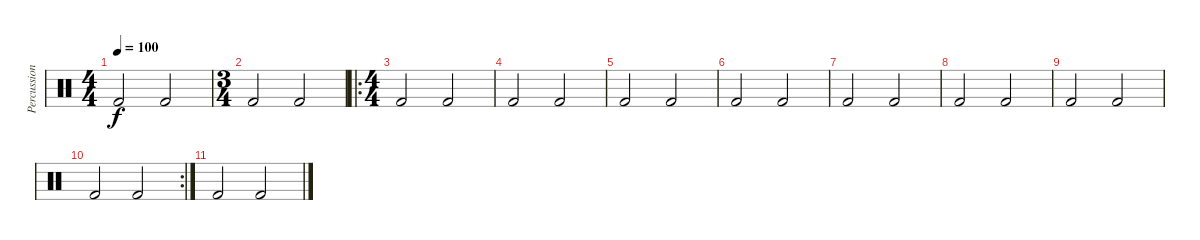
\track ("Percussion" "Percussion") {mute instrument percussion}
\staff {score}
\articulation defaults
\ts (4 4)
\tempo 100
\clef neutral
\ks c "Kick (hit) 2".2{dy f} "Kick (hit) 2".2
|
\ts (3 4)
"Kick (hit) 2".2 "Kick (hit) 2".2 |
\ro
\ts (4 4)
"Kick (hit) 2".2 "Kick (hit) 2".2 |
"Kick (hit) 2".2 "Kick (hit) 2".2 |
"Kick (hit) 2".2 "Kick (hit) 2".2 |
"Kick (hit) 2".2 "Kick (hit) 2".2 |
"Kick (hit) 2".2 "Kick (hit) 2".2 |
"Kick (hit) 2".2 "Kick (hit) 2".2 |
"Kick (hit) 2".2 "Kick (hit) 2".2 |
\rc 2 "Kick (hit) 2".2 "Kick (hit) 2".2
|
"Kick (hit) 2".2 "Kick (hit) 2".2
